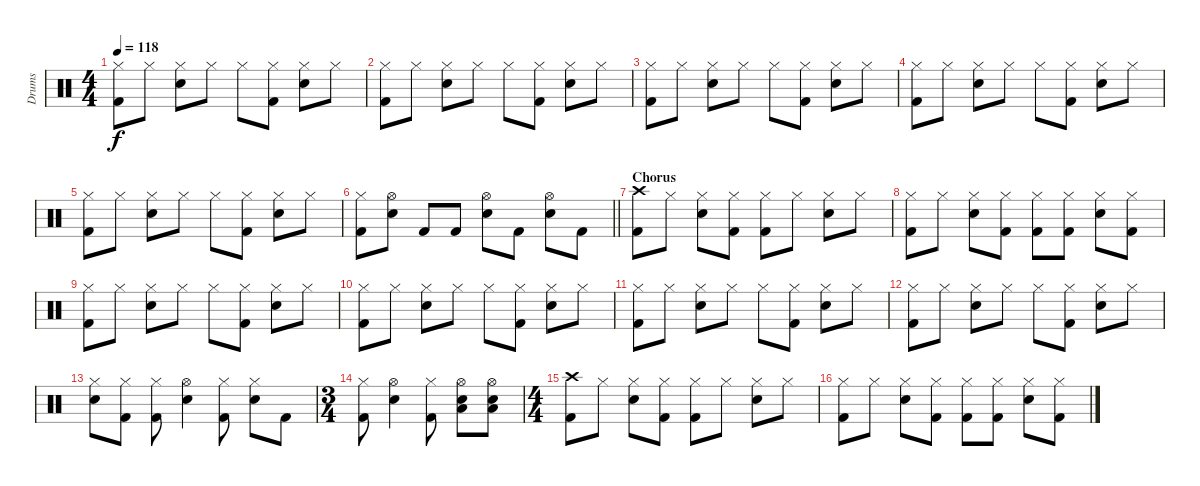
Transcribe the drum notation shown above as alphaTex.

\track ("Drums" "Drums") {instrument percussion}
\staff {score}
\articulation defaults
\ts (4 4)
\tempo 118
\clef neutral
\ks c
("Hi-Hat (closed)" "Kick (hit) 2").8{dy f} "Hi-Hat (closed)".8 ("Hi-Hat (closed)" "Electric Snare (hit)").8 "Hi-Hat (closed)".8 "Hi-Hat (closed)".8 ("Hi-Hat (closed)" "Kick (hit) 2").8 ("Hi-Hat (closed)" "Electric Snare (hit)").8 "Hi-Hat (closed)".8 |
("Hi-Hat (closed)" "Kick (hit) 2").8 "Hi-Hat (closed)".8 ("Hi-Hat (closed)" "Electric Snare (hit)").8 "Hi-Hat (closed)".8 "Hi-Hat (closed)".8 ("Hi-Hat (closed)" "Kick (hit) 2").8 ("Hi-Hat (closed)" "Electric Snare (hit)").8 "Hi-Hat (closed)".8 |
("Hi-Hat (closed)" "Kick (hit) 2").8 "Hi-Hat (closed)".8 ("Hi-Hat (closed)" "Electric Snare (hit)").8 "Hi-Hat (closed)".8 "Hi-Hat (closed)".8 ("Hi-Hat (closed)" "Kick (hit) 2").8 ("Hi-Hat (closed)" "Electric Snare (hit)").8 "Hi-Hat (closed)".8 |
("Hi-Hat (closed)" "Kick (hit) 2").8 "Hi-Hat (closed)".8 ("Hi-Hat (closed)" "Electric Snare (hit)").8 "Hi-Hat (closed)".8 "Hi-Hat (closed)".8 ("Hi-Hat (closed)" "Kick (hit) 2").8 ("Hi-Hat (closed)" "Electric Snare (hit)").8 "Hi-Hat (closed)".8 |
("Hi-Hat (closed)" "Kick (hit) 2").8 "Hi-Hat (closed)".8 ("Hi-Hat (closed)" "Electric Snare (hit)").8 "Hi-Hat (closed)".8 "Hi-Hat (closed)".8 ("Hi-Hat (closed)" "Kick (hit) 2").8 ("Hi-Hat (closed)" "Electric Snare (hit)").8 "Hi-Hat (closed)".8 |
\barLineRight lightlight
("Hi-Hat (closed)" "Kick (hit) 2").8 ("Hi-Hat (open)" "Electric Snare (hit)").8 "Kick (hit) 2".8 "Kick (hit) 2".8 ("Hi-Hat (open)" "Electric Snare (hit)").8 "Kick (hit) 2".8 ("Hi-Hat (open)" "Electric Snare (hit)").8 "Kick (hit) 2".8 |
\section ("" "Chorus")
("Crash high (hit)" "Kick (hit) 2").8 "Hi-Hat (closed)".8 ("Hi-Hat (closed)" "Electric Snare (hit)").8 ("Hi-Hat (closed)" "Kick (hit) 2").8 ("Hi-Hat (closed)" "Kick (hit) 2").8 "Hi-Hat (closed)".8 ("Hi-Hat (closed)" "Electric Snare (hit)").8 "Hi-Hat (closed)".8 |
("Hi-Hat (closed)" "Kick (hit) 2").8 "Hi-Hat (closed)".8 ("Hi-Hat (closed)" "Electric Snare (hit)").8 ("Hi-Hat (closed)" "Kick (hit) 2").8 ("Hi-Hat (closed)" "Kick (hit) 2").8 ("Hi-Hat (closed)" "Kick (hit) 2").8 ("Hi-Hat (closed)" "Electric Snare (hit)").8 ("Hi-Hat (closed)" "Kick (hit) 2").8 |
("Hi-Hat (closed)" "Kick (hit) 2").8 "Hi-Hat (closed)".8 ("Hi-Hat (closed)" "Electric Snare (hit)").8 "Hi-Hat (closed)".8 "Hi-Hat (closed)".8 ("Hi-Hat (closed)" "Kick (hit) 2").8 ("Hi-Hat (closed)" "Electric Snare (hit)").8 "Hi-Hat (closed)".8 |
("Hi-Hat (closed)" "Kick (hit) 2").8 "Hi-Hat (closed)".8 ("Hi-Hat (closed)" "Electric Snare (hit)").8 "Hi-Hat (closed)".8 "Hi-Hat (closed)".8 ("Hi-Hat (closed)" "Kick (hit) 2").8 ("Hi-Hat (closed)" "Electric Snare (hit)").8 "Hi-Hat (closed)".8 |
("Hi-Hat (closed)" "Kick (hit) 2").8 "Hi-Hat (closed)".8 ("Hi-Hat (closed)" "Electric Snare (hit)").8 "Hi-Hat (closed)".8 "Hi-Hat (closed)".8 ("Hi-Hat (closed)" "Kick (hit) 2").8 ("Hi-Hat (closed)" "Electric Snare (hit)").8 "Hi-Hat (closed)".8 |
("Hi-Hat (closed)" "Kick (hit) 2").8 "Hi-Hat (closed)".8 ("Hi-Hat (closed)" "Electric Snare (hit)").8 "Hi-Hat (closed)".8 "Hi-Hat (closed)".8 ("Hi-Hat (closed)" "Kick (hit) 2").8 ("Hi-Hat (closed)" "Electric Snare (hit)").8 "Hi-Hat (closed)".8 |
("Hi-Hat (closed)" "Electric Snare (hit)").8 ("Hi-Hat (closed)" "Kick (hit) 2").8 ("Hi-Hat (closed)" "Kick (hit) 2").8 ("Hi-Hat (open)" "Electric Snare (hit)").4 ("Hi-Hat (closed)" "Kick (hit) 2").8 ("Hi-Hat (closed)" "Electric Snare (hit)").8 "Kick (hit) 2".8 |
\ts (3 4)
("Hi-Hat (closed)" "Kick (hit) 2").8 ("Hi-Hat (open)" "Electric Snare (hit)").4 ("Hi-Hat (closed)" "Kick (hit) 2").8 ("Hi-Hat (open)" "Electric Snare (hit)" "Low Floor Tom (hit)").8 ("Hi-Hat (open)" "Electric Snare (hit)" "Low Floor Tom (hit)").8 |
\ts (4 4)
("Crash high (hit)" "Kick (hit) 2").8 "Hi-Hat (closed)".8 ("Hi-Hat (closed)" "Electric Snare (hit)").8 ("Hi-Hat (closed)" "Kick (hit) 2").8 ("Hi-Hat (closed)" "Kick (hit) 2").8 "Hi-Hat (closed)".8 ("Hi-Hat (closed)" "Electric Snare (hit)").8 "Hi-Hat (closed)".8 |
("Hi-Hat (closed)" "Kick (hit) 2").8 "Hi-Hat (closed)".8 ("Hi-Hat (closed)" "Electric Snare (hit)").8 ("Hi-Hat (closed)" "Kick (hit) 2").8 ("Hi-Hat (closed)" "Kick (hit) 2").8 ("Hi-Hat (closed)" "Kick (hit) 2").8 ("Hi-Hat (closed)" "Electric Snare (hit)").8 ("Hi-Hat (closed)" "Kick (hit) 2").8
